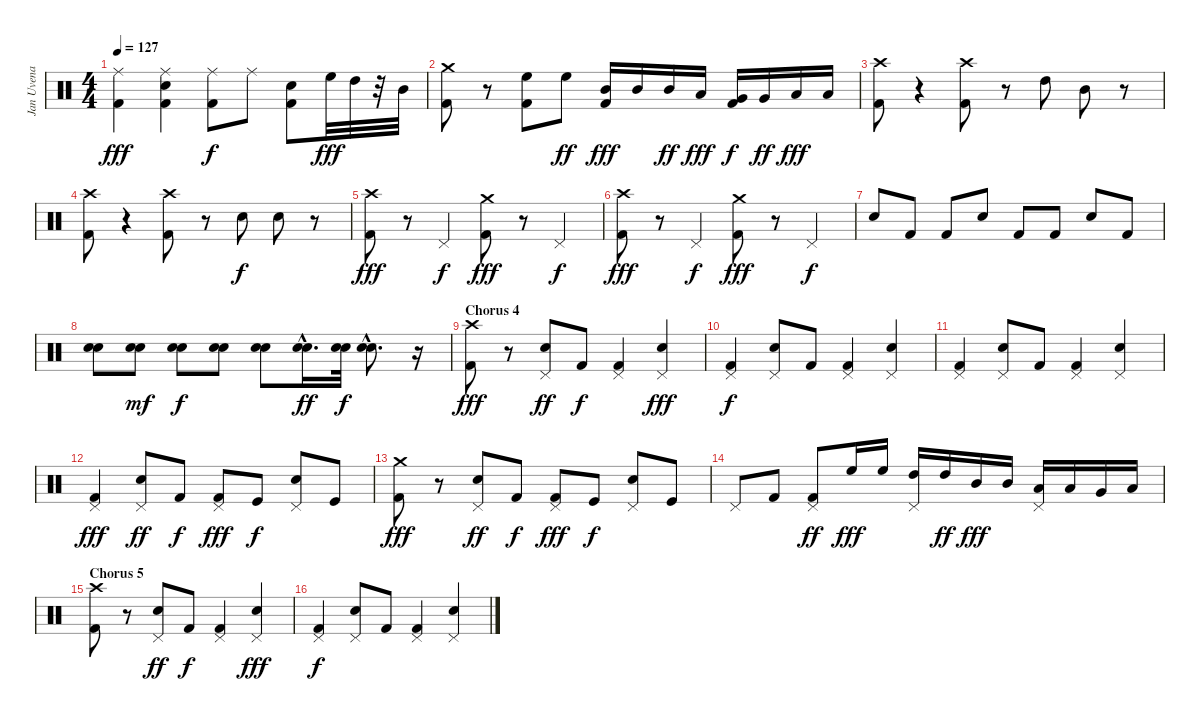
\track ("Jan Uvena" "Jan Uvena") {instrument percussion}
\staff {score}
\articulation defaults
\ts (4 4)
\tempo 127
\clef neutral
\ks c
("Ride (middle)" "Kick (hit) 2").4{dy fff} ("Ride (middle)" "Snare (hit) 2" "Kick (hit) 2").4 ("Ride (middle)" "Kick (hit) 2").8{dy f} "Ride (middle)".8 ("Snare (hit) 2" "Kick (hit) 2").8 "High Floor Tom (hit)".32{dy fff} "High Tom (hit)".32 r.32 "Mid Tom (hit)".32 |
("Crash medium (hit)" "Kick (hit) 2").8 r.8 ("High Floor Tom (hit)" "Kick (hit) 2").8 "High Floor Tom (hit)".8{dy ff} ("Mid Tom (hit)" "Kick (hit) 2").16{dy fff} "Mid Tom (hit)".16 "Mid Tom (hit)".16{dy ff} "Low Tom (hit)".16{dy fff} ("Very Low Tom (hit)" "Kick (hit) 2").16{dy f} "Very Low Tom (hit)".16{dy ff} "Low Floor Tom (hit)".16{dy fff} "Low Floor Tom (hit)".16 |
("Crash high (hit)" "Kick (hit) 2").8 r.4 ("Crash high (hit)" "Kick (hit) 2").8 r.8 "High Tom (hit)".8 "Mid Tom (hit)".8 r.8 |
("Crash high (hit)" "Kick (hit) 2").8 r.4 ("Crash high (hit)" "Kick (hit) 2").8 r.8 "Snare (hit) 2".8{dy f} "Snare (hit) 2".8 r.8 |
("Crash high (hit)" "Kick (hit) 2").8{dy fff} r.8 "Pedal Hi-Hat (hit)".4{dy f} ("Crash medium (hit)" "Kick (hit) 2").8{dy fff} r.8 "Pedal Hi-Hat (hit)".4{dy f} |
("Crash high (hit)" "Kick (hit) 2").8{dy fff} r.8 "Pedal Hi-Hat (hit)".4{dy f} ("Crash medium (hit)" "Kick (hit) 2").8{dy fff} r.8 "Pedal Hi-Hat (hit)".4{dy f} |
"Snare (hit) 2".8 "Kick (hit) 2".8 "Kick (hit) 2".8 "Snare (hit) 2".8 "Kick (hit) 2".8 "Kick (hit) 2".8 "Snare (hit) 2".8 "Kick (hit) 2".8 |
("Snare (hit) 2" "Snare (hit) 2").8 ("Snare (hit) 2" "Snare (hit) 2").8{dy mf} ("Snare (hit) 2" "Snare (hit) 2").8{dy f} ("Snare (hit) 2" "Snare (hit) 2").8 ("Snare (hit) 2" "Snare (hit) 2").8 ("Snare (hit) 2"{hac} "Snare (hit) 2"{hac}).16{d dy ff} ("Snare (hit) 2" "Snare (hit) 2").32{dy f} ("Snare (hit) 2"{hac} "Snare (hit) 2"{hac}).8{d} r.16 |
\section ("" "Chorus 4")
("Crash high (hit)" "Kick (hit) 2").8{dy fff} r.8 ("Pedal Hi-Hat (hit)" "Snare (hit) 2").8{dy ff} "Kick (hit) 2".8{dy f} ("Pedal Hi-Hat (hit)" "Kick (hit) 2").4 ("Pedal Hi-Hat (hit)" "Snare (hit) 2").4{dy fff} |
("Pedal Hi-Hat (hit)" "Kick (hit) 2").4{dy f} ("Pedal Hi-Hat (hit)" "Snare (hit) 2").8 "Kick (hit) 2".8 ("Pedal Hi-Hat (hit)" "Kick (hit) 2").4 ("Pedal Hi-Hat (hit)" "Snare (hit) 2").4 |
("Pedal Hi-Hat (hit)" "Kick (hit) 2").4 ("Pedal Hi-Hat (hit)" "Snare (hit) 2").8 "Kick (hit) 2".8 ("Pedal Hi-Hat (hit)" "Kick (hit) 2").4 ("Pedal Hi-Hat (hit)" "Snare (hit) 2").4 |
("Pedal Hi-Hat (hit)" "Kick (hit) 2").4{dy fff} ("Pedal Hi-Hat (hit)" "Snare (hit) 2").8{dy ff} "Kick (hit) 2".8{dy f} ("Pedal Hi-Hat (hit)" "Kick (hit) 2").8{dy fff} "Kick (hit)".8{dy f} ("Pedal Hi-Hat (hit)" "Snare (hit) 2").8 "Kick (hit)".8 |
("Crash medium (hit)" "Kick (hit) 2").8{dy fff} r.8 ("Pedal Hi-Hat (hit)" "Snare (hit) 2").8{dy ff} "Kick (hit) 2".8{dy f} ("Pedal Hi-Hat (hit)" "Kick (hit) 2").8{dy fff} "Kick (hit)".8{dy f} ("Pedal Hi-Hat (hit)" "Snare (hit) 2").8 "Kick (hit)".8 |
"Pedal Hi-Hat (hit)".8 "Kick (hit) 2".8 ("Pedal Hi-Hat (hit)" "Kick (hit) 2").8{dy ff} "High Floor Tom (hit)".16{dy fff} "High Floor Tom (hit)".16 ("Pedal Hi-Hat (hit)" "High Tom (hit)").16 "High Tom (hit)".16{dy ff} "Mid Tom (hit)".16{dy fff} "Mid Tom (hit)".16 ("Pedal Hi-Hat (hit)" "Low Tom (hit)").16 "Low Tom (hit)".16 "Very Low Tom (hit)".16 "Low Floor Tom (hit)".16 |
\section ("" "Chorus 5")
("Crash high (hit)" "Kick (hit) 2").8 r.8 ("Pedal Hi-Hat (hit)" "Snare (hit) 2").8{dy ff} "Kick (hit) 2".8{dy f} ("Pedal Hi-Hat (hit)" "Kick (hit) 2").4 ("Pedal Hi-Hat (hit)" "Snare (hit) 2").4{dy fff} |
("Pedal Hi-Hat (hit)" "Kick (hit) 2").4{dy f} ("Pedal Hi-Hat (hit)" "Snare (hit) 2").8 "Kick (hit) 2".8 ("Pedal Hi-Hat (hit)" "Kick (hit) 2").4 ("Pedal Hi-Hat (hit)" "Snare (hit) 2").4
